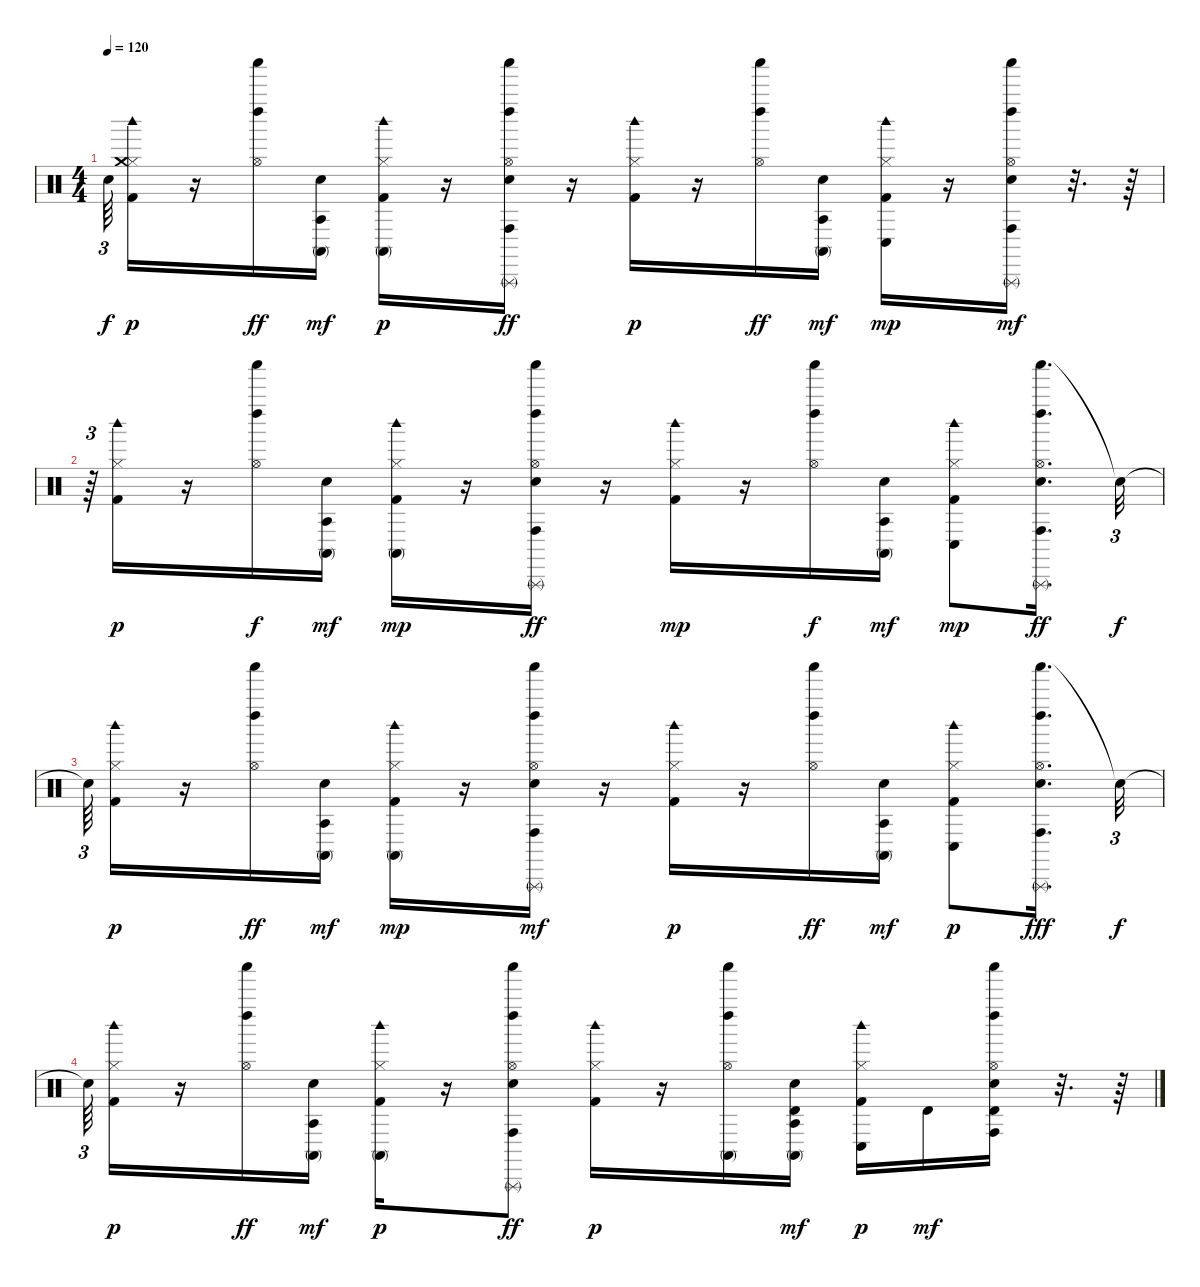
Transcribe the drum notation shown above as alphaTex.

\track "" {instrument percussion}
\staff {score}
\articulation defaults
\ts (4 4)
\tempo 120
\clef neutral
\ks c "Snare (hit)"{t}.64{tu (3 2) dy f}
("Kick (hit) 2" "Hi-Hat (closed)" "Crash medium (hit)" "Woodblock high (hit)").16{dy p} r.16 ("Shaker (hit)" "Left Maraca (hit)" "Hi-Hat (open)").16{dy ff} ("Electric Snare (hit)" "Conga high (mute)" "Agogo tow (hit)").16{dy mf} ("Kick (hit) 2" "Conga high (mute)" "Hi-Hat (closed)" "Woodblock high (hit)").16{dy p} r.16 ("Shaker (hit)" "Left Maraca (hit)" "Electric Snare (hit)" "Conga high (hit)" "Hi-Hat (open)" "Triangle (rnute)").16{dy ff} r.16 ("Kick (hit) 2" "Hi-Hat (closed)" "Woodblock high (hit)").16{dy p} r.16 ("Shaker (hit)" "Left Maraca (hit)" "Hi-Hat (open)").16{dy ff} ("Electric Snare (hit)" "Conga high (mute)" "Agogo tow (hit)").16{dy mf} ("Kick (hit) 2" "Conga low (hit)" "Hi-Hat (closed)" "Woodblock high (hit)").16{dy mp} r.16 ("Shaker (hit)" "Left Maraca (hit)" "Electric Snare (hit)" "Conga high (hit)" "Hi-Hat (open)" "Triangle (rnute)").16{dy mf} r.32{d} r.64 |
r.64{tu (3 2)} ("Kick (hit) 2" "Hi-Hat (closed)" "Woodblock high (hit)").16{dy p} r.16 ("Shaker (hit)" "Left Maraca (hit)" "Hi-Hat (open)").16{dy f} ("Electric Snare (hit)" "Conga high (mute)" "Agogo tow (hit)").16{dy mf} ("Kick (hit) 2" "Conga high (mute)" "Hi-Hat (closed)" "Woodblock high (hit)").16{dy mp} r.16 ("Shaker (hit)" "Left Maraca (hit)" "Electric Snare (hit)" "Conga high (hit)" "Hi-Hat (open)" "Triangle (rnute)").16{dy ff} r.16 ("Kick (hit) 2" "Hi-Hat (closed)" "Woodblock high (hit)").16{dy mp} r.16 ("Shaker (hit)" "Left Maraca (hit)" "Hi-Hat (open)").16{dy f} ("Electric Snare (hit)" "Conga high (mute)" "Agogo tow (hit)").16{dy mf} ("Kick (hit) 2" "Conga low (hit)" "Hi-Hat (closed)" "Woodblock high (hit)").8{dy mp} ("Shaker (hit)" "Left Maraca (hit)" "Electric Snare (hit)" "Conga high (hit)" "Hi-Hat (open)" "Triangle (rnute)").16{d dy ff} "Snare (hit)"{t}.32{tu (3 2) dy f} |
"Snare (hit)"{t}.64{tu (3 2)} ("Kick (hit) 2" "Hi-Hat (closed)" "Woodblock high (hit)").16{dy p} r.16 ("Shaker (hit)" "Left Maraca (hit)" "Hi-Hat (open)").16{dy ff} ("Electric Snare (hit)" "Conga high (mute)" "Agogo tow (hit)").16{dy mf} ("Kick (hit) 2" "Conga high (mute)" "Hi-Hat (closed)" "Woodblock high (hit)").16{dy mp} r.16 ("Shaker (hit)" "Left Maraca (hit)" "Electric Snare (hit)" "Conga high (hit)" "Hi-Hat (open)" "Triangle (rnute)").16{dy mf} r.16 ("Kick (hit) 2" "Hi-Hat (closed)" "Woodblock high (hit)").16{dy p} r.16 ("Shaker (hit)" "Left Maraca (hit)" "Hi-Hat (open)").16{dy ff} ("Electric Snare (hit)" "Conga high (mute)" "Agogo tow (hit)").16{dy mf} ("Kick (hit) 2" "Conga low (hit)" "Hi-Hat (closed)" "Woodblock high (hit)").8{dy p} ("Shaker (hit)" "Left Maraca (hit)" "Electric Snare (hit)" "Conga high (hit)" "Hi-Hat (open)" "Triangle (rnute)").16{d dy fff} "Snare (hit)"{t}.32{tu (3 2) dy f} |
"Snare (hit)"{t}.64{tu (3 2)} ("Kick (hit) 2" "Hi-Hat (closed)" "Woodblock high (hit)").16{dy p} r.16 ("Shaker (hit)" "Left Maraca (hit)" "Hi-Hat (open)").16{dy ff} ("Electric Snare (hit)" "Conga high (mute)" "Agogo tow (hit)").16{dy mf} ("Kick (hit) 2" "Conga high (mute)" "Hi-Hat (closed)" "Woodblock high (hit)").16{dy p} r.16 ("Shaker (hit)" "Left Maraca (hit)" "Electric Snare (hit)" "Conga high (hit)" "Hi-Hat (open)" "Triangle (rnute)").8{dy ff} ("Kick (hit) 2" "Hi-Hat (closed)" "Woodblock high (hit)").16{dy p} r.16 ("Shaker (hit)" "Left Maraca (hit)" "Conga high (mute)" "Hi-Hat (open)").16 ("Electric Snare (hit)" "Conga high (mute)" "Timbale high (hit)" "Agogo tow (hit)").16{dy mf} ("Kick (hit) 2" "Conga low (hit)" "Hi-Hat (closed)" "Woodblock high (hit)").16{dy p} "Timbale high (hit)".16{dy mf} ("Shaker (hit)" "Left Maraca (hit)" "Electric Snare (hit)" "Conga high (hit)" "Hi-Hat (open)" "Timbale high (hit)").16 r.32{d} r.64
